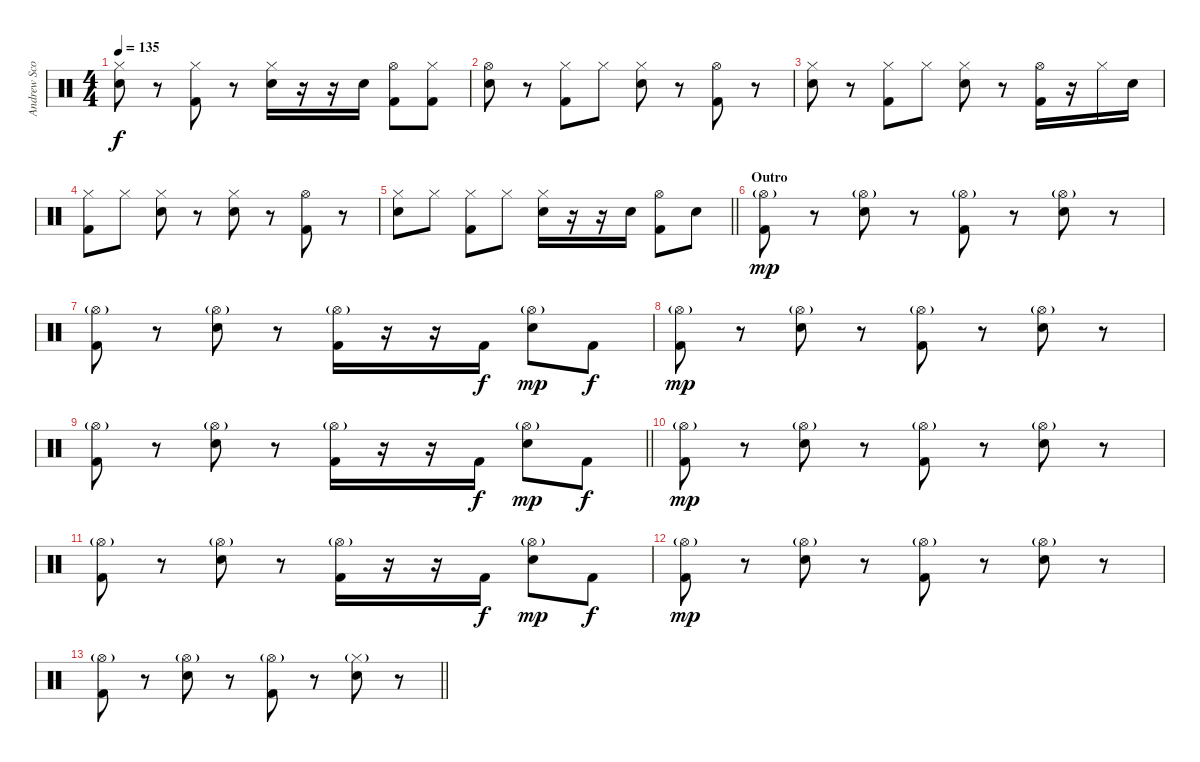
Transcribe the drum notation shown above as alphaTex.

\track ("Andrew Scott" "Andrew Sco") {instrument percussion}
\staff {score}
\articulation defaults
\ts (4 4)
\tempo 135
\clef neutral
\ks c
("Hi-Hat (closed)" "Snare (hit) 2").8{dy f} r.8 ("Hi-Hat (closed)" "Kick (hit) 2").8 r.8 ("Hi-Hat (closed)" "Snare (hit) 2").16 r.16 r.16 "Snare (hit) 2".16 ("Hi-Hat (open)" "Kick (hit) 2").8 ("Hi-Hat (closed)" "Kick (hit) 2").8 |
("Hi-Hat (open)" "Snare (hit) 2").8 r.8 ("Hi-Hat (closed)" "Kick (hit) 2").8 "Hi-Hat (closed)".8 ("Hi-Hat (closed)" "Snare (hit) 2").8 r.8 ("Hi-Hat (open)" "Kick (hit) 2").8 r.8 |
("Hi-Hat (closed)" "Snare (hit) 2").8 r.8 ("Hi-Hat (closed)" "Kick (hit) 2").8 "Hi-Hat (closed)".8 ("Hi-Hat (closed)" "Snare (hit) 2").8 r.8 ("Hi-Hat (open)" "Kick (hit) 2").16 r.16 "Hi-Hat (closed)".16 "Snare (hit) 2".16 |
("Hi-Hat (closed)" "Kick (hit) 2").8 "Hi-Hat (closed)".8 ("Hi-Hat (closed)" "Snare (hit) 2").8 r.8 ("Hi-Hat (closed)" "Snare (hit) 2").8 r.8 ("Hi-Hat (open)" "Kick (hit) 2").8 r.8 |
\barLineRight lightlight
("Hi-Hat (closed)" "Snare (hit) 2").8 "Hi-Hat (closed)".8 ("Hi-Hat (closed)" "Kick (hit) 2").8 "Hi-Hat (closed)".8 ("Hi-Hat (closed)" "Snare (hit) 2").16 r.16 r.16 "Snare (hit) 2".16 ("Hi-Hat (open)" "Kick (hit) 2").8 "Snare (hit) 2".8 |
\section ("" "Outro")
("Hi-Hat (open)"{g} "Kick (hit) 2").8{dy mp} r.8 ("Hi-Hat (open)"{g} "Snare (hit) 2").8 r.8 ("Hi-Hat (open)"{g} "Kick (hit) 2").8 r.8 ("Hi-Hat (open)"{g} "Snare (hit) 2").8 r.8 |
("Hi-Hat (open)"{g} "Kick (hit) 2").8 r.8 ("Hi-Hat (open)"{g} "Snare (hit) 2").8 r.8 ("Hi-Hat (open)"{g} "Kick (hit) 2").16 r.16 r.16 "Kick (hit) 2".16{dy f} ("Hi-Hat (open)"{g} "Snare (hit) 2").8{dy mp} "Kick (hit) 2".8{dy f} |
("Hi-Hat (open)"{g} "Kick (hit) 2").8{dy mp} r.8 ("Hi-Hat (open)"{g} "Snare (hit) 2").8 r.8 ("Hi-Hat (open)"{g} "Kick (hit) 2").8 r.8 ("Hi-Hat (open)"{g} "Snare (hit) 2").8 r.8 |
\barLineRight lightlight
("Hi-Hat (open)"{g} "Kick (hit) 2").8 r.8 ("Hi-Hat (open)"{g} "Snare (hit) 2").8 r.8 ("Hi-Hat (open)"{g} "Kick (hit) 2").16 r.16 r.16 "Kick (hit) 2".16{dy f} ("Hi-Hat (open)"{g} "Snare (hit) 2").8{dy mp} "Kick (hit) 2".8{dy f} |
("Hi-Hat (open)"{g} "Kick (hit) 2").8{dy mp} r.8 ("Hi-Hat (open)"{g} "Snare (hit) 2").8 r.8 ("Hi-Hat (open)"{g} "Kick (hit) 2").8 r.8 ("Hi-Hat (open)"{g} "Snare (hit) 2").8 r.8 |
("Hi-Hat (open)"{g} "Kick (hit) 2").8 r.8 ("Hi-Hat (open)"{g} "Snare (hit) 2").8 r.8 ("Hi-Hat (open)"{g} "Kick (hit) 2").16 r.16 r.16 "Kick (hit) 2".16{dy f} ("Hi-Hat (open)"{g} "Snare (hit) 2").8{dy mp} "Kick (hit) 2".8{dy f} |
("Hi-Hat (open)"{g} "Kick (hit) 2").8{dy mp} r.8 ("Hi-Hat (open)"{g} "Snare (hit) 2").8 r.8 ("Hi-Hat (open)"{g} "Kick (hit) 2").8 r.8 ("Hi-Hat (open)"{g} "Snare (hit) 2").8 r.8 |
\barLineRight lightlight
("Hi-Hat (open)"{g} "Kick (hit) 2").8 r.8 ("Hi-Hat (open)"{g} "Snare (hit) 2").8 r.8 ("Hi-Hat (open)"{g} "Kick (hit) 2").8 r.8 ("Hi-Hat (closed)"{g} "Snare (hit) 2").8 r.8
